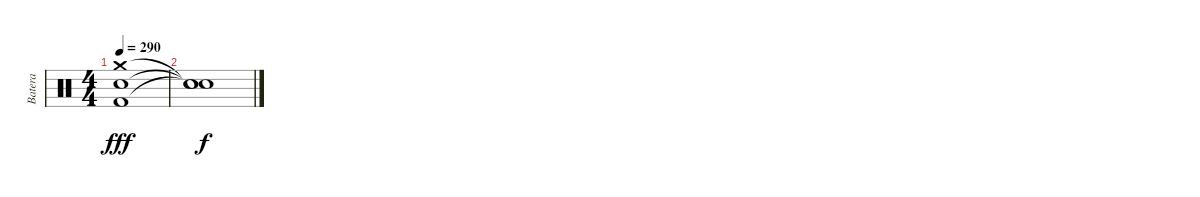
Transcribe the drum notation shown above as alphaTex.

\track ("Batera" "Batera") {instrument percussion}
\staff {score}
\articulation defaults
\ts (4 4)
\tempo 290
\clef neutral
\ks c
("Kick (hit) 2" "Electric Snare (hit)" "Crash medium (hit)").1{dy fff} |
("Snare (hit)"{t} "Snare (hit)"{t} "Snare (hit)"{t}).1{dy f}
